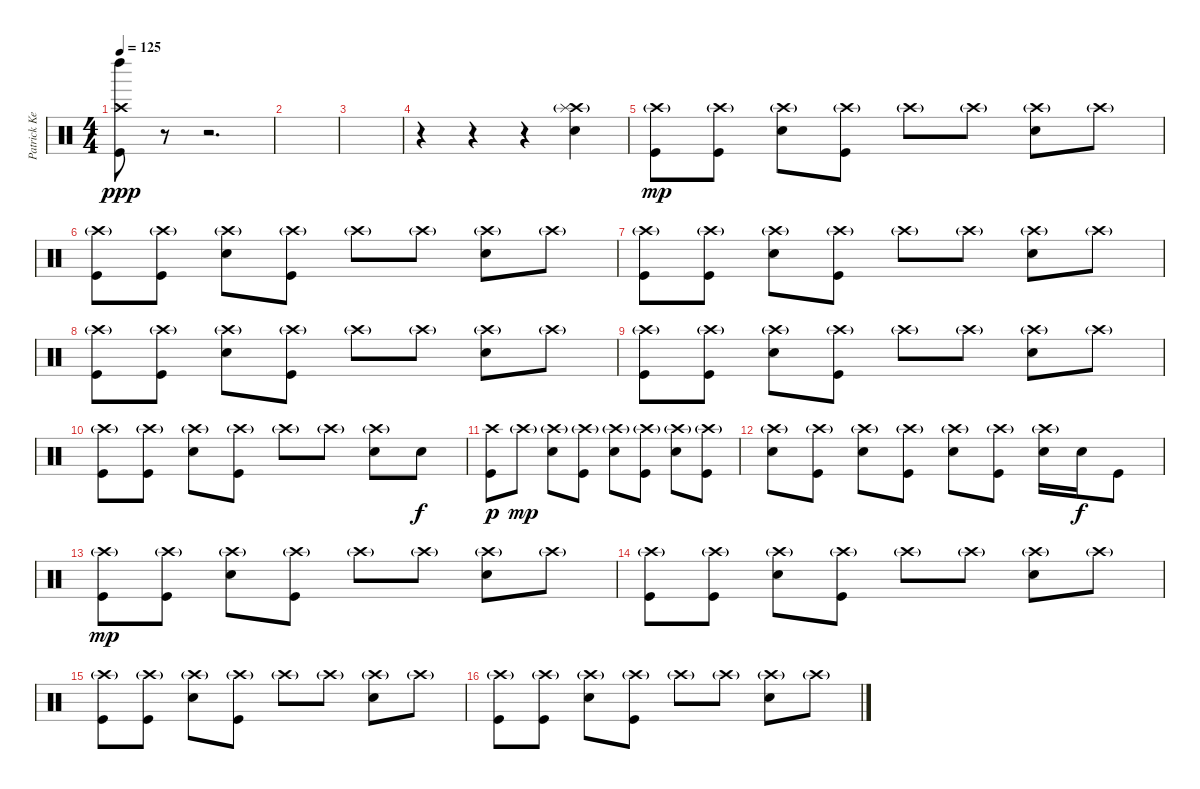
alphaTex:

\track ("Patrick Keeler" "Patrick Ke") {instrument percussion}
\staff {score}
\articulation defaults
\ts (4 4)
\tempo 125
\clef neutral
\ks c
("Crash high (hit)" "Left Maraca (hit)" "Kick (hit)").8{dy ppp} r.8 r.2{d} |
|
|
r.4 r.4 r.4 ("Electric Snare (hit)" "Crash high (hit)" "Splash (hit)"{g}).4 |
("Crash high (hit)"{g} "Kick (hit)").8{dy mp} ("Crash high (hit)"{g} "Kick (hit)").8 ("Crash high (hit)"{g} "Electric Snare (hit)").8 ("Crash high (hit)"{g} "Kick (hit)").8 "Crash high (hit)"{g}.8 "Crash high (hit)"{g}.8 ("Crash high (hit)"{g} "Electric Snare (hit)").8 "Crash high (hit)"{g}.8 |
("Crash high (hit)"{g} "Kick (hit)").8 ("Crash high (hit)"{g} "Kick (hit)").8 ("Crash high (hit)"{g} "Electric Snare (hit)").8 ("Crash high (hit)"{g} "Kick (hit)").8 "Crash high (hit)"{g}.8 "Crash high (hit)"{g}.8 ("Crash high (hit)"{g} "Electric Snare (hit)").8 "Crash high (hit)"{g}.8 |
("Crash high (hit)"{g} "Kick (hit)").8 ("Crash high (hit)"{g} "Kick (hit)").8 ("Crash high (hit)"{g} "Electric Snare (hit)").8 ("Crash high (hit)"{g} "Kick (hit)").8 "Crash high (hit)"{g}.8 "Crash high (hit)"{g}.8 ("Crash high (hit)"{g} "Electric Snare (hit)").8 "Crash high (hit)"{g}.8 |
("Crash high (hit)"{g} "Kick (hit)").8 ("Crash high (hit)"{g} "Kick (hit)").8 ("Crash high (hit)"{g} "Electric Snare (hit)").8 ("Crash high (hit)"{g} "Kick (hit)").8 "Crash high (hit)"{g}.8 "Crash high (hit)"{g}.8 ("Crash high (hit)"{g} "Electric Snare (hit)").8 "Crash high (hit)"{g}.8 |
("Crash high (hit)"{g} "Kick (hit)").8 ("Crash high (hit)"{g} "Kick (hit)").8 ("Crash high (hit)"{g} "Electric Snare (hit)").8 ("Crash high (hit)"{g} "Kick (hit)").8 "Crash high (hit)"{g}.8 "Crash high (hit)"{g}.8 ("Crash high (hit)"{g} "Electric Snare (hit)").8 "Crash high (hit)"{g}.8 |
("Crash high (hit)"{g} "Kick (hit)").8 ("Crash high (hit)"{g} "Kick (hit)").8 ("Crash high (hit)"{g} "Electric Snare (hit)").8 ("Crash high (hit)"{g} "Kick (hit)").8 "Crash high (hit)"{g}.8 "Crash high (hit)"{g}.8 ("Crash high (hit)"{g} "Electric Snare (hit)").8 "Electric Snare (hit)".8{dy f} |
("Crash high (hit)" "Kick (hit)").8{dy p} "Crash high (hit)"{g}.8{dy mp} ("Crash high (hit)"{g} "Electric Snare (hit)").8 ("Crash high (hit)"{g} "Kick (hit)").8 ("Crash high (hit)"{g} "Electric Snare (hit)").8 ("Crash high (hit)"{g} "Kick (hit)").8 ("Crash high (hit)"{g} "Electric Snare (hit)").8 ("Crash high (hit)"{g} "Kick (hit)").8 |
("Crash high (hit)"{g} "Electric Snare (hit)").8 ("Crash high (hit)"{g} "Kick (hit)").8 ("Crash high (hit)"{g} "Electric Snare (hit)").8 ("Crash high (hit)"{g} "Kick (hit)").8 ("Crash high (hit)"{g} "Electric Snare (hit)").8 ("Crash high (hit)"{g} "Kick (hit)").8 ("Crash high (hit)"{g} "Electric Snare (hit)").16 "Electric Snare (hit)".16{dy f} "Kick (hit)".8 |
("Crash high (hit)"{g} "Kick (hit)").8{dy mp} ("Crash high (hit)"{g} "Kick (hit)").8 ("Crash high (hit)"{g} "Electric Snare (hit)").8 ("Crash high (hit)"{g} "Kick (hit)").8 "Crash high (hit)"{g}.8 "Crash high (hit)"{g}.8 ("Crash high (hit)"{g} "Electric Snare (hit)").8 "Crash high (hit)"{g}.8 |
("Crash high (hit)"{g} "Kick (hit)").8 ("Crash high (hit)"{g} "Kick (hit)").8 ("Crash high (hit)"{g} "Electric Snare (hit)").8 ("Crash high (hit)"{g} "Kick (hit)").8 "Crash high (hit)"{g}.8 "Crash high (hit)"{g}.8 ("Crash high (hit)"{g} "Electric Snare (hit)").8 "Crash high (hit)"{g}.8 |
("Crash high (hit)"{g} "Kick (hit)").8 ("Crash high (hit)"{g} "Kick (hit)").8 ("Crash high (hit)"{g} "Electric Snare (hit)").8 ("Crash high (hit)"{g} "Kick (hit)").8 "Crash high (hit)"{g}.8 "Crash high (hit)"{g}.8 ("Crash high (hit)"{g} "Electric Snare (hit)").8 "Crash high (hit)"{g}.8 |
("Crash high (hit)"{g} "Kick (hit)").8 ("Crash high (hit)"{g} "Kick (hit)").8 ("Crash high (hit)"{g} "Electric Snare (hit)").8 ("Crash high (hit)"{g} "Kick (hit)").8 "Crash high (hit)"{g}.8 "Crash high (hit)"{g}.8 ("Crash high (hit)"{g} "Electric Snare (hit)").8 "Crash high (hit)"{g}.8
